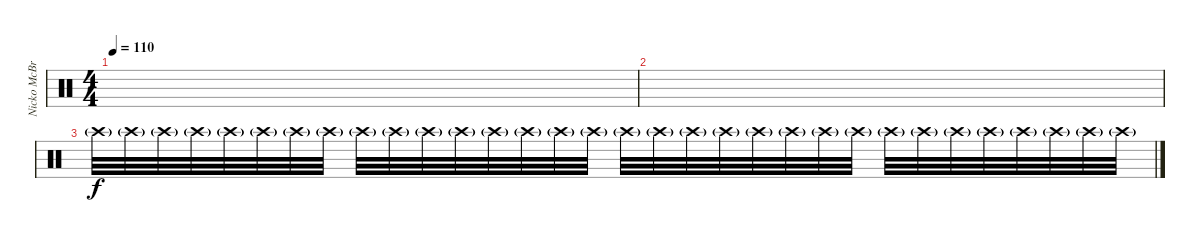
\track ("Nicko McBrain" "Nicko McBr") {instrument percussion}
\staff {score}
\articulation defaults
\ts (4 4)
\tempo 110
\clef neutral
\ks c
|
|
"Crash high (hit)"{g}.32{dy f} "Crash high (hit)"{g}.32 "Crash high (hit)"{g}.32 "Crash high (hit)"{g}.32 "Crash high (hit)"{g}.32 "Crash high (hit)"{g}.32 "Crash high (hit)"{g}.32 "Crash high (hit)"{g}.32 "Crash high (hit)"{g}.32 "Crash high (hit)"{g}.32 "Crash high (hit)"{g}.32 "Crash high (hit)"{g}.32 "Crash high (hit)"{g}.32 "Crash high (hit)"{g}.32 "Crash high (hit)"{g}.32 "Crash high (hit)"{g}.32 "Crash high (hit)"{g}.32 "Crash high (hit)"{g}.32 "Crash high (hit)"{g}.32 "Crash high (hit)"{g}.32 "Crash high (hit)"{g}.32 "Crash high (hit)"{g}.32 "Crash high (hit)"{g}.32 "Crash high (hit)"{g}.32 "Crash high (hit)"{g}.32 "Crash high (hit)"{g}.32 "Crash high (hit)"{g}.32 "Crash high (hit)"{g}.32 "Crash high (hit)"{g}.32 "Crash high (hit)"{g}.32 "Crash high (hit)"{g}.32 "Crash high (hit)"{g}.32
